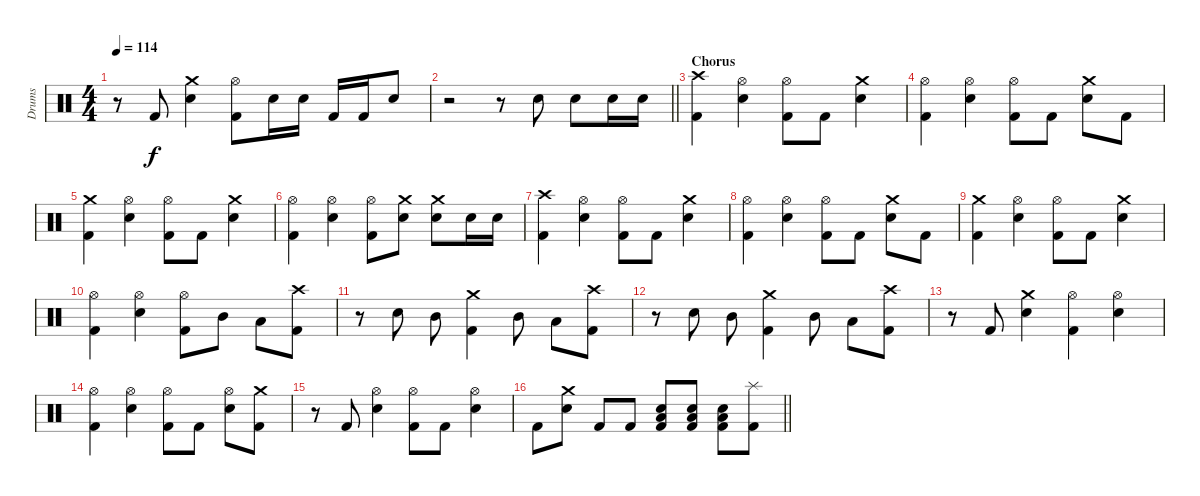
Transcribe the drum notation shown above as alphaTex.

\track ("Drums" "Drums") {instrument percussion}
\staff {score}
\articulation defaults
\ts (4 4)
\tempo 114
\clef neutral
\ks c
r.8{dy f} "Kick (hit) 2".8 ("Crash medium (hit)" "Snare (hit) 2").4 ("Hi-Hat (open)" "Kick (hit) 2").8 "Snare (hit) 2".16 "Snare (hit) 2".16 "Kick (hit) 2".16 "Kick (hit) 2".16 "Snare (hit) 2".8 |
\barLineRight lightlight
r.2 r.8 "Snare (hit) 2".8 "Snare (hit) 2".8 "Snare (hit) 2".16 "Snare (hit) 2".16 |
\section ("" "Chorus")
("Crash high (hit)" "Kick (hit) 2").4 ("Hi-Hat (open)" "Snare (hit) 2").4 ("Hi-Hat (open)" "Kick (hit) 2").8 "Kick (hit) 2".8 ("Crash medium (hit)" "Snare (hit) 2").4 |
("Hi-Hat (open)" "Kick (hit) 2").4 ("Hi-Hat (open)" "Snare (hit) 2").4 ("Hi-Hat (open)" "Kick (hit) 2").8 "Kick (hit) 2".8 ("Crash medium (hit)" "Snare (hit) 2").8 "Kick (hit) 2".8 |
("Crash medium (hit)" "Kick (hit) 2").4 ("Hi-Hat (open)" "Snare (hit) 2").4 ("Hi-Hat (open)" "Kick (hit) 2").8 "Kick (hit) 2".8 ("Crash medium (hit)" "Snare (hit) 2").4 |
("Hi-Hat (open)" "Kick (hit) 2").4 ("Hi-Hat (open)" "Snare (hit) 2").4 ("Hi-Hat (open)" "Kick (hit) 2").8 ("Crash medium (hit)" "Snare (hit) 2").8 ("Crash medium (hit)" "Snare (hit) 2").8 "Snare (hit) 2".16 "Snare (hit) 2".16 |
("Crash high (hit)" "Kick (hit) 2").4 ("Hi-Hat (open)" "Snare (hit) 2").4 ("Hi-Hat (open)" "Kick (hit) 2").8 "Kick (hit) 2".8 ("Crash medium (hit)" "Snare (hit) 2").4 |
("Hi-Hat (open)" "Kick (hit) 2").4 ("Hi-Hat (open)" "Snare (hit) 2").4 ("Hi-Hat (open)" "Kick (hit) 2").8 "Kick (hit) 2".8 ("Crash medium (hit)" "Snare (hit) 2").8 "Kick (hit) 2".8 |
("Crash medium (hit)" "Kick (hit) 2").4 ("Hi-Hat (open)" "Snare (hit) 2").4 ("Hi-Hat (open)" "Kick (hit) 2").8 "Kick (hit) 2".8 ("Crash medium (hit)" "Snare (hit) 2").4 |
("Hi-Hat (open)" "Kick (hit) 2").4 ("Hi-Hat (open)" "Snare (hit) 2").4 ("Hi-Hat (open)" "Kick (hit) 2").8 "Mid Tom (hit)".8 "Low Tom (hit)".8 ("Crash high (hit)" "Kick (hit) 2").8 |
r.8 "Snare (hit) 2".8 "Mid Tom (hit)".8 ("Crash medium (hit)" "Kick (hit) 2").4 "Mid Tom (hit)".8 "Low Tom (hit)".8 ("Crash high (hit)" "Kick (hit) 2").8 |
r.8 "Snare (hit) 2".8 "Mid Tom (hit)".8 ("Crash medium (hit)" "Kick (hit) 2").4 "Mid Tom (hit)".8 "Low Tom (hit)".8 ("Crash high (hit)" "Kick (hit) 2").8 |
r.8 "Kick (hit) 2".8 ("Crash medium (hit)" "Snare (hit) 2").4 ("Hi-Hat (open)" "Kick (hit) 2").4 ("Hi-Hat (open)" "Snare (hit) 2").4 |
("Hi-Hat (open)" "Kick (hit) 2").4 ("Hi-Hat (open)" "Snare (hit) 2").4 ("Hi-Hat (open)" "Kick (hit) 2").8 "Kick (hit) 2".8 ("Hi-Hat (open)" "Snare (hit) 2").8 ("Crash medium (hit)" "Kick (hit) 2").8 |
r.8 "Kick (hit) 2".8 ("Hi-Hat (open)" "Snare (hit) 2").4 ("Hi-Hat (open)" "Kick (hit) 2").8 "Kick (hit) 2".8 ("Hi-Hat (open)" "Snare (hit) 2").4 |
\barLineRight lightlight "Kick (hit) 2".8
("Crash medium (hit)" "Snare (hit) 2").8 "Kick (hit) 2".8 "Kick (hit) 2".8 ("Snare (hit) 2" "Low Tom (hit)" "Kick (hit) 2").8 ("Snare (hit) 2" "Low Tom (hit)" "Kick (hit) 2").8 ("Snare (hit) 2" "Low Tom (hit)" "Kick (hit) 2").8 ("Splash (hit)" "Kick (hit) 2").8
